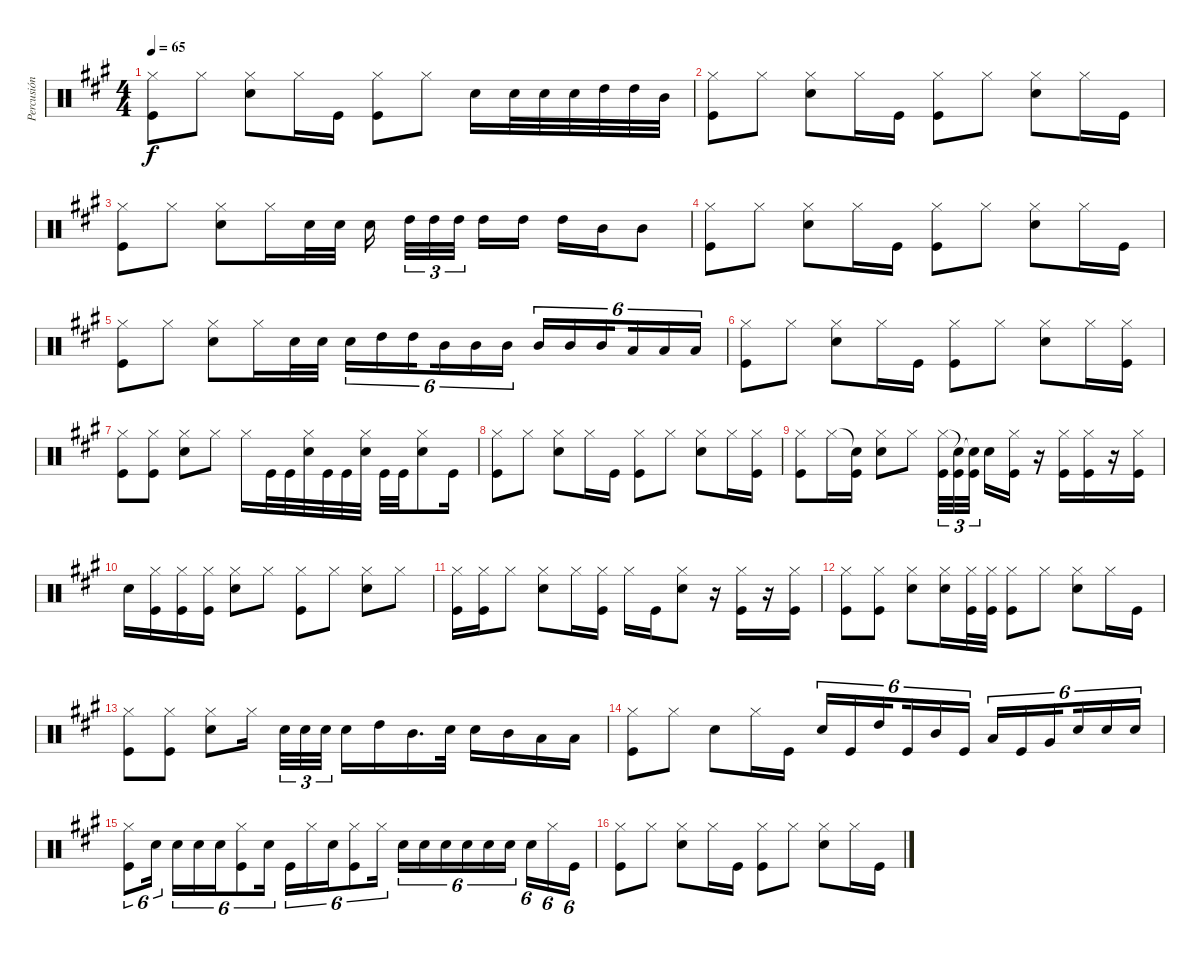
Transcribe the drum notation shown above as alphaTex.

\track ("Percusión" "Percusión") {instrument percussion}
\staff {score}
\articulation defaults
\ts (4 4)
\tempo 65
\clef neutral
\ks f#minor
("Hi-Hat (closed)" "Kick (hit)").8{dy f} "Hi-Hat (closed)".8 ("Hi-Hat (closed)" "Snare (hit) 2").8 "Hi-Hat (closed)".16 "Kick (hit)".16 ("Hi-Hat (closed)" "Kick (hit)").8 "Hi-Hat (closed)".8 "Snare (hit) 2".16 "Snare (hit) 2".32 "Snare (hit) 2".32 "Snare (hit) 2".32 "High Tom (hit)".32 "High Tom (hit)".32 "Mid Tom (hit)".32 |
("Hi-Hat (closed)" "Kick (hit)").8 "Hi-Hat (closed)".8 ("Hi-Hat (closed)" "Snare (hit) 2").8 "Hi-Hat (closed)".16 "Kick (hit)".16 ("Hi-Hat (closed)" "Kick (hit)").8 "Hi-Hat (closed)".8 ("Hi-Hat (closed)" "Snare (hit) 2").8 "Hi-Hat (closed)".16 "Kick (hit)".16 |
("Hi-Hat (closed)" "Kick (hit)").8 "Hi-Hat (closed)".8 ("Hi-Hat (closed)" "Snare (hit) 2").8 "Hi-Hat (closed)".16 "Snare (hit) 2".32 "Snare (hit) 2".32 "Snare (hit) 2".16{beam splitsecondary} "High Tom (hit)".32{tu (3 2)} "High Tom (hit)".32{tu (3 2)} "High Tom (hit)".32{tu (3 2) beam splitsecondary} "High Tom (hit)".16 "High Tom (hit)".16 "High Tom (hit)".16 "Mid Tom (hit)".16 "Mid Tom (hit)".8 |
("Hi-Hat (closed)" "Kick (hit)").8 "Hi-Hat (closed)".8 ("Hi-Hat (closed)" "Snare (hit) 2").8 "Hi-Hat (closed)".16 "Kick (hit)".16 ("Hi-Hat (closed)" "Kick (hit)").8 "Hi-Hat (closed)".8 ("Hi-Hat (closed)" "Snare (hit) 2").8 "Hi-Hat (closed)".16 "Kick (hit)".16 |
("Hi-Hat (closed)" "Kick (hit)").8 "Hi-Hat (closed)".8 ("Hi-Hat (closed)" "Snare (hit) 2").8 "Hi-Hat (closed)".16 "Snare (hit) 2".32 "Snare (hit) 2".32 "Snare (hit) 2".16{tu (6 4)} "High Tom (hit)".16{tu (6 4)} "High Tom (hit)".16{tu (6 4) beam splitsecondary} "Mid Tom (hit)".16{tu (6 4)} "Mid Tom (hit)".16{tu (6 4)} "Mid Tom (hit)".16{tu (6 4)} "Mid Tom (hit)".16{tu (6 4)} "Mid Tom (hit)".16{tu (6 4)} "Mid Tom (hit)".16{tu (6 4) beam splitsecondary} "Low Tom (hit)".16{tu (6 4)} "Low Tom (hit)".16{tu (6 4)} "Low Tom (hit)".16{tu (6 4)} |
("Hi-Hat (closed)" "Kick (hit)").8 "Hi-Hat (closed)".8 ("Hi-Hat (closed)" "Snare (hit) 2").8 "Hi-Hat (closed)".16 "Kick (hit)".16 ("Hi-Hat (closed)" "Kick (hit)").8 "Hi-Hat (closed)".8 ("Hi-Hat (closed)" "Snare (hit) 2").8 "Hi-Hat (closed)".16 ("Hi-Hat (closed)" "Kick (hit)").16 |
("Hi-Hat (closed)" "Kick (hit)").8 ("Hi-Hat (closed)" "Kick (hit)").8 ("Hi-Hat (closed)" "Snare (hit) 2").8 "Hi-Hat (closed)".8 "Hi-Hat (closed)".16 "Kick (hit)".32 "Kick (hit)".32 ("Hi-Hat (closed)" "Snare (hit) 2").32 "Kick (hit)".32 "Kick (hit)".32 ("Hi-Hat (closed)" "Snare (hit) 2").32 "Kick (hit)".32 "Kick (hit)".32 ("Hi-Hat (closed)" "Snare (hit) 2").8 "Kick (hit)".16 |
("Hi-Hat (closed)" "Kick (hit)").8 "Hi-Hat (closed)".8 ("Hi-Hat (closed)" "Snare (hit) 2").8 "Hi-Hat (closed)".16 "Kick (hit)".16 ("Hi-Hat (closed)" "Kick (hit)").8 "Hi-Hat (closed)".8 ("Hi-Hat (closed)" "Snare (hit) 2").8 "Hi-Hat (closed)".16 ("Hi-Hat (closed)" "Kick (hit)").16 |
("Hi-Hat (closed)" "Kick (hit)").8 "Hi-Hat (closed)".16 ("Snare (hit)"{t} "Kick (hit)").16 ("Hi-Hat (closed)" "Snare (hit) 2").8 "Hi-Hat (closed)".8 ("Hi-Hat (closed)" "Kick (hit)").32{tu (3 2)} ("Snare (hit)"{t} "Kick (hit)").32{tu (3 2)} ("Snare (hit)"{t} "Kick (hit)").32{tu (3 2) beam splitsecondary} "Snare (hit) 2".16 ("Hi-Hat (closed)" "Kick (hit)").16 r.16 ("Hi-Hat (closed)" "Kick (hit)").16 ("Hi-Hat (closed)" "Kick (hit)").16 r.16 ("Hi-Hat (closed)" "Kick (hit)").16 |
"Snare (hit) 2".16 ("Hi-Hat (closed)" "Kick (hit)").16 ("Hi-Hat (closed)" "Kick (hit)").16 ("Hi-Hat (closed)" "Kick (hit)").16 ("Hi-Hat (closed)" "Snare (hit) 2").8 "Hi-Hat (closed)".8 ("Hi-Hat (closed)" "Kick (hit)").8 "Hi-Hat (closed)".8 ("Hi-Hat (closed)" "Snare (hit) 2").8 "Hi-Hat (closed)".8 |
("Hi-Hat (closed)" "Kick (hit)").16 ("Hi-Hat (closed)" "Kick (hit)").16 "Hi-Hat (closed)".8 ("Hi-Hat (closed)" "Snare (hit) 2").8 "Hi-Hat (closed)".16 ("Hi-Hat (closed)" "Kick (hit)").16 "Hi-Hat (closed)".16 "Kick (hit)".16 ("Hi-Hat (closed)" "Snare (hit) 2").8 r.16 ("Hi-Hat (closed)" "Kick (hit)").16 r.16 ("Hi-Hat (closed)" "Kick (hit)").16 |
("Hi-Hat (closed)" "Kick (hit)").8 ("Hi-Hat (closed)" "Kick (hit)").8 ("Hi-Hat (closed)" "Snare (hit) 2").8 ("Hi-Hat (closed)" "Snare (hit) 2").16 ("Hi-Hat (closed)" "Kick (hit)").32 ("Hi-Hat (closed)" "Kick (hit)").32 ("Hi-Hat (closed)" "Kick (hit)").8 "Hi-Hat (closed)".8 ("Hi-Hat (closed)" "Snare (hit) 2").8 "Hi-Hat (closed)".16 "Kick (hit)".16 |
("Hi-Hat (closed)" "Kick (hit)").8 ("Hi-Hat (closed)" "Kick (hit)").8 ("Hi-Hat (closed)" "Snare (hit) 2").8 "Hi-Hat (closed)".16{beam splitsecondary} "Snare (hit) 2".32{tu (3 2)} "Snare (hit) 2".32{tu (3 2)} "Snare (hit) 2".32{tu (3 2)} "Snare (hit) 2".16 "High Tom (hit)".16 "Mid Tom (hit)".16{d} "Snare (hit) 2".32 "Snare (hit) 2".16 "Mid Tom (hit)".16 "Low Tom (hit)".16 "Low Tom (hit)".16 |
("Hi-Hat (closed)" "Kick (hit)").8 "Hi-Hat (closed)".8 "Snare (hit) 2".8 "Hi-Hat (closed)".16 "Kick (hit)".16 "Snare (hit) 2".16{tu (6 4)} "Kick (hit)".16{tu (6 4)} "High Tom (hit)".16{tu (6 4) beam splitsecondary} "Kick (hit)".16{tu (6 4)} "Mid Tom (hit)".16{tu (6 4)} "Kick (hit)".16{tu (6 4)} "Low Tom (hit)".16{tu (6 4)} "Kick (hit)".16{tu (6 4)} "Very Low Tom (hit)".16{tu (6 4) beam splitsecondary} "Snare (hit) 2".16{tu (6 4)} "Snare (hit) 2".16{tu (6 4)} "Snare (hit) 2".16{tu (6 4)} |
("Hi-Hat (closed)" "Kick (hit)").8{tu (6 4)} "Snare (hit) 2".16{tu (6 4) beam splitsecondary} "Snare (hit) 2".16{tu (6 4)} "Snare (hit) 2".16{tu (6 4)} "Snare (hit) 2".16{tu (6 4)} ("Hi-Hat (closed)" "Kick (hit)").8{tu (6 4)} "Snare (hit) 2".16{tu (6 4) beam splitsecondary} "Kick (hit)".16{tu (6 4)} "Hi-Hat (closed)".16{tu (6 4)} "Snare (hit) 2".16{tu (6 4)} ("Hi-Hat (closed)" "Kick (hit)").8{tu (6 4)} "Hi-Hat (closed)".16{tu (6 4) beam splitsecondary} "Snare (hit) 2".16{tu (6 4)} "Snare (hit) 2".16{tu (6 4)} "Snare (hit) 2".16{tu (6 4)} "Snare (hit) 2".16{tu (6 4)} "Snare (hit) 2".16{tu (6 4)} "Snare (hit) 2".16{tu (6 4) beam splitsecondary} "Snare (hit) 2".16{tu (6 4)} "Hi-Hat (closed)".16{tu (6 4)} "Kick (hit)".16{tu (6 4)} |
("Hi-Hat (closed)" "Kick (hit)").8 "Hi-Hat (closed)".8 ("Hi-Hat (closed)" "Snare (hit) 2").8 "Hi-Hat (closed)".16 "Kick (hit)".16 ("Hi-Hat (closed)" "Kick (hit)").8 "Hi-Hat (closed)".8 ("Hi-Hat (closed)" "Snare (hit) 2").8 "Hi-Hat (closed)".16 "Kick (hit)".16
